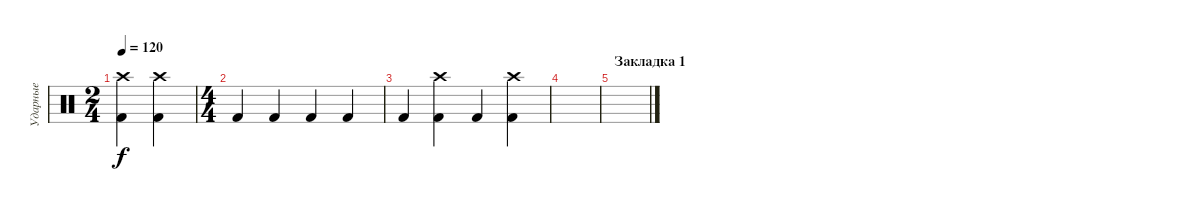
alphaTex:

\track ("Ударные" "Ударные") {instrument percussion}
\staff {score}
\articulation defaults
\ts (2 4)
\tempo 120
\clef neutral
\ks c
("Kick (hit) 2" "Crash high (hit)").4{dy f} ("Kick (hit) 2" "Crash high (hit)").4 |
\ts (4 4)
"Kick (hit) 2".4 "Kick (hit) 2".4 "Kick (hit) 2".4 "Kick (hit) 2".4 |
"Kick (hit) 2".4 ("Kick (hit) 2" "Crash high (hit)").4 "Kick (hit) 2".4 ("Kick (hit) 2" "Crash high (hit)").4 |
|
\section ("" "Закладка 1")
